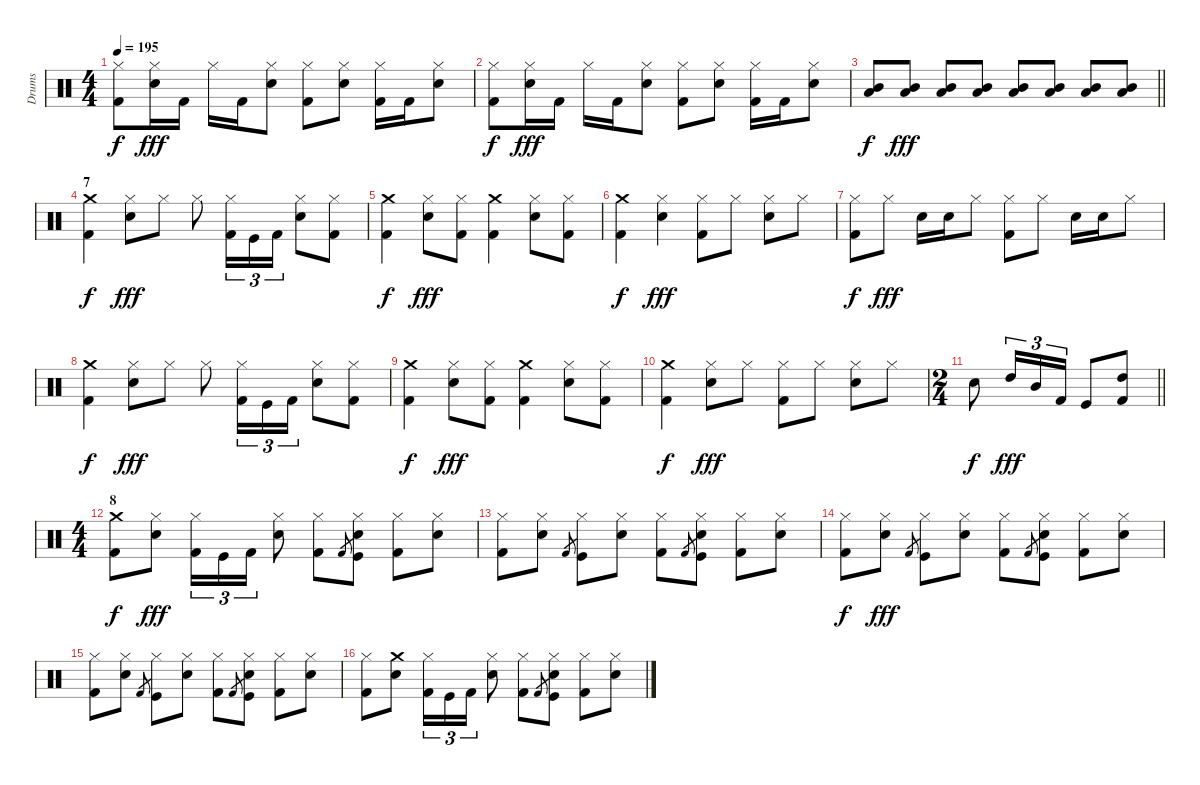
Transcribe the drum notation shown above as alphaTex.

\track ("Drums" "Drums") {instrument percussion}
\staff {score}
\articulation defaults
\ts (4 4)
\tempo 195
\clef neutral
\ks c
("Hi-Hat (closed)" "Kick (hit) 2").8{dy f} ("Snare (hit) 2" "Hi-Hat (closed)").16{dy fff} "Kick (hit) 2".16 "Hi-Hat (closed)".16 "Kick (hit) 2".16 ("Snare (hit) 2" "Hi-Hat (closed)").8 ("Hi-Hat (closed)" "Kick (hit) 2").8 ("Snare (hit) 2" "Hi-Hat (closed)").8 ("Hi-Hat (closed)" "Kick (hit) 2").16 "Kick (hit) 2".16 ("Snare (hit) 2" "Hi-Hat (closed)").8 |
("Hi-Hat (closed)" "Kick (hit) 2").8{dy f} ("Snare (hit) 2" "Hi-Hat (closed)").16{dy fff} "Kick (hit) 2".16 "Hi-Hat (closed)".16 "Kick (hit) 2".16 ("Snare (hit) 2" "Hi-Hat (closed)").8 ("Hi-Hat (closed)" "Kick (hit) 2").8 ("Snare (hit) 2" "Hi-Hat (closed)").8 ("Hi-Hat (closed)" "Kick (hit) 2").16 "Kick (hit) 2".16 ("Snare (hit) 2" "Hi-Hat (closed)").8 |
\barLineRight lightlight
("Mid Tom (hit)" "Low Tom (hit)").8{dy f} ("Mid Tom (hit)" "Low Tom (hit)").8{dy fff} ("Mid Tom (hit)" "Low Tom (hit)").8 ("Mid Tom (hit)" "Low Tom (hit)").8 ("Mid Tom (hit)" "Low Tom (hit)").8 ("Mid Tom (hit)" "Low Tom (hit)").8 ("Mid Tom (hit)" "Low Tom (hit)").8 ("Mid Tom (hit)" "Low Tom (hit)").8 |
\section ("" "7")
("Kick (hit) 2" "Crash medium (hit)").4{dy f} ("Snare (hit) 2" "Hi-Hat (closed)").8{dy fff} "Hi-Hat (closed)".8 "Hi-Hat (closed)".8 ("Kick (hit) 2" "Hi-Hat (closed)").16{tu (3 2)} "Kick (hit)".16{tu (3 2)} "Kick (hit) 2".16{tu (3 2)} ("Snare (hit) 2" "Hi-Hat (closed)").8 ("Kick (hit) 2" "Hi-Hat (closed)").8 |
("Kick (hit) 2" "Crash medium (hit)").4{dy f} ("Hi-Hat (closed)" "Snare (hit) 2").8{dy fff} ("Kick (hit) 2" "Hi-Hat (closed)").8 ("Crash medium (hit)" "Kick (hit) 2").4 ("Hi-Hat (closed)" "Snare (hit) 2").8 ("Kick (hit) 2" "Hi-Hat (closed)").8 |
("Kick (hit) 2" "Crash medium (hit)").4{dy f} ("Hi-Hat (closed)" "Snare (hit) 2").4{dy fff} ("Hi-Hat (closed)" "Kick (hit) 2").8 "Hi-Hat (closed)".8 ("Snare (hit) 2" "Hi-Hat (closed)").8 "Hi-Hat (closed)".8 |
("Kick (hit) 2" "Hi-Hat (closed)").8{dy f} "Hi-Hat (closed)".8{dy fff} "Snare (hit) 2".16 "Snare (hit) 2".16 "Hi-Hat (closed)".8 ("Kick (hit) 2" "Hi-Hat (closed)").8 "Hi-Hat (closed)".8 "Snare (hit) 2".16 "Snare (hit) 2".16 "Hi-Hat (closed)".8 |
("Kick (hit) 2" "Crash medium (hit)").4{dy f} ("Snare (hit) 2" "Hi-Hat (closed)").8{dy fff} "Hi-Hat (closed)".8 "Hi-Hat (closed)".8 ("Kick (hit) 2" "Hi-Hat (closed)").16{tu (3 2)} "Kick (hit)".16{tu (3 2)} "Kick (hit) 2".16{tu (3 2)} ("Snare (hit) 2" "Hi-Hat (closed)").8 ("Kick (hit) 2" "Hi-Hat (closed)").8 |
("Kick (hit) 2" "Crash medium (hit)").4{dy f} ("Hi-Hat (closed)" "Snare (hit) 2").8{dy fff} ("Kick (hit) 2" "Hi-Hat (closed)").8 ("Crash medium (hit)" "Kick (hit) 2").4 ("Hi-Hat (closed)" "Snare (hit) 2").8 ("Kick (hit) 2" "Hi-Hat (closed)").8 |
("Kick (hit) 2" "Crash medium (hit)").4{dy f} ("Hi-Hat (closed)" "Snare (hit) 2").8{dy fff} "Hi-Hat (closed)".8 ("Hi-Hat (closed)" "Kick (hit) 2").8 "Hi-Hat (closed)".8 ("Snare (hit) 2" "Hi-Hat (closed)").8 "Hi-Hat (closed)".8 |
\ts (2 4)
\barLineRight lightlight "Snare (hit) 2".8{dy f} "High Tom (hit)".16{tu (3 2) dy fff} "Mid Tom (hit)".16{tu (3 2)} "Kick (hit) 2".16{tu (3 2)} "Kick (hit)".8
("Kick (hit) 2" "High Tom (hit)").8 |
\ts (4 4)
\section ("" "8")
("Crash medium (hit)" "Kick (hit) 2").8{dy f} ("Snare (hit) 2" "Hi-Hat (closed)").8{dy fff} ("Kick (hit) 2" "Hi-Hat (closed)").16{tu (3 2)} "Kick (hit)".16{tu (3 2)} "Kick (hit) 2".16{tu (3 2)} ("Snare (hit) 2" "Hi-Hat (closed)").8 ("Kick (hit) 2" "Hi-Hat (closed)").8 "Kick (hit) 2".8{gr} ("Kick (hit)" "Snare (hit) 2" "Hi-Hat (closed)").8 ("Kick (hit) 2" "Hi-Hat (closed)").8 ("Snare (hit) 2" "Hi-Hat (closed)").8 |
("Kick (hit) 2" "Hi-Hat (closed)").8 ("Snare (hit) 2" "Hi-Hat (closed)").8 "Kick (hit) 2".8{gr} ("Kick (hit)" "Hi-Hat (closed)").8 ("Snare (hit) 2" "Hi-Hat (closed)").8 ("Kick (hit) 2" "Hi-Hat (closed)").8 "Kick (hit) 2".8{gr} ("Kick (hit)" "Snare (hit) 2" "Hi-Hat (closed)").8 ("Kick (hit) 2" "Hi-Hat (closed)").8 ("Snare (hit) 2" "Hi-Hat (closed)").8 |
("Kick (hit) 2" "Hi-Hat (closed)").8{dy f} ("Snare (hit) 2" "Hi-Hat (closed)").8{dy fff} "Kick (hit) 2".8{gr} ("Kick (hit)" "Hi-Hat (closed)").8 ("Snare (hit) 2" "Hi-Hat (closed)").8 ("Kick (hit) 2" "Hi-Hat (closed)").8 "Kick (hit) 2".8{gr} ("Kick (hit)" "Snare (hit) 2" "Hi-Hat (closed)").8 ("Kick (hit) 2" "Hi-Hat (closed)").8 ("Snare (hit) 2" "Hi-Hat (closed)").8 |
("Kick (hit) 2" "Hi-Hat (closed)").8 ("Snare (hit) 2" "Hi-Hat (closed)").8 "Kick (hit) 2".8{gr} ("Kick (hit)" "Hi-Hat (closed)").8 ("Snare (hit) 2" "Hi-Hat (closed)").8 ("Kick (hit) 2" "Hi-Hat (closed)").8 "Kick (hit) 2".8{gr} ("Kick (hit)" "Snare (hit) 2" "Hi-Hat (closed)").8 ("Kick (hit) 2" "Hi-Hat (closed)").8 ("Snare (hit) 2" "Hi-Hat (closed)").8 |
("Hi-Hat (closed)" "Kick (hit) 2").8 ("Crash medium (hit)" "Snare (hit) 2").8 ("Kick (hit) 2" "Hi-Hat (closed)").16{tu (3 2)} "Kick (hit)".16{tu (3 2)} "Kick (hit) 2".16{tu (3 2)} ("Snare (hit) 2" "Hi-Hat (closed)").8 ("Kick (hit) 2" "Hi-Hat (closed)").8 "Kick (hit) 2".8{gr} ("Kick (hit)" "Snare (hit) 2" "Hi-Hat (closed)").8 ("Kick (hit) 2" "Hi-Hat (closed)").8 ("Snare (hit) 2" "Hi-Hat (closed)").8
